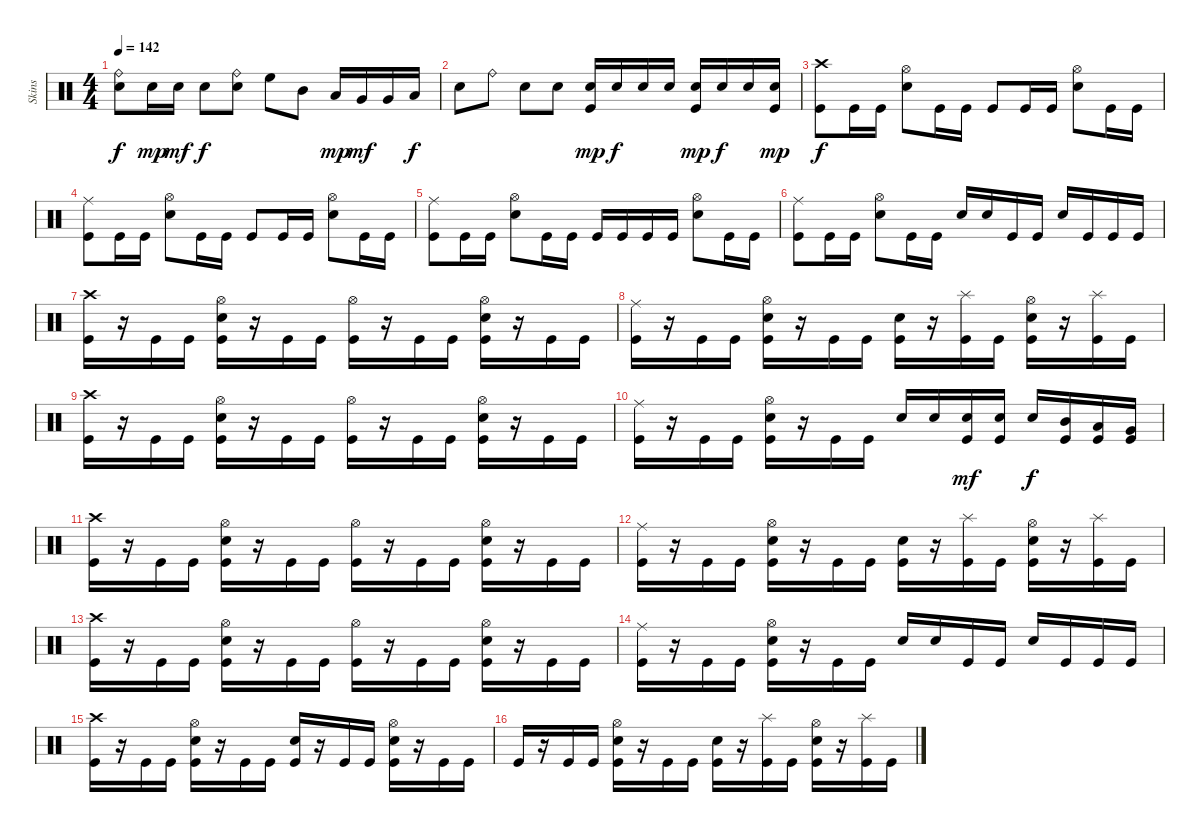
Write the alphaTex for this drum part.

\track ("Skins" "Skins") {instrument percussion}
\staff {score}
\articulation defaults
\ts (4 4)
\tempo 142
\clef neutral
\ks c
("Electric Snare (hit)" "Ride (bell)").8{dy f} "Snare (hit) 2".16{dy mp} "Snare (hit) 2".16{dy mf} "Snare (hit) 2".8{dy f} ("Electric Snare (hit)" "Ride (bell)").8 "High Floor Tom (hit)".8 "Mid Tom (hit)".8 "Low Tom (hit)".16{dy mp} "Very Low Tom (hit)".16{dy mf} "Very Low Tom (hit)".16 "Low Floor Tom (hit)".16{dy f} |
"Electric Snare (hit)".8 "Ride (bell)".8 "Snare (hit) 2".8 "Electric Snare (hit)".8 ("Snare (hit) 2" "Kick (hit)").16{dy mp} "Electric Snare (hit)".16{dy f} "Electric Snare (hit)".16 "Electric Snare (hit)".16 ("Snare (hit) 2" "Kick (hit)").16{dy mp} "Electric Snare (hit)".16{dy f} "Electric Snare (hit)".16 ("Snare (hit) 2" "Kick (hit)").16{dy mp} |
("Crash high (hit)" "Kick (hit)").8{dy f} "Kick (hit)".16 "Kick (hit)".16 ("Electric Snare (hit)" "Hi-Hat (open)").8 "Kick (hit)".16 "Kick (hit)".16 "Kick (hit)".8 "Kick (hit)".16 "Kick (hit)".16 ("Electric Snare (hit)" "Hi-Hat (open)").8 "Kick (hit)".16 "Kick (hit)".16 |
("Ride (middle)" "Kick (hit)").8 "Kick (hit)".16 "Kick (hit)".16 ("Electric Snare (hit)" "Hi-Hat (open)").8 "Kick (hit)".16 "Kick (hit)".16 "Kick (hit)".8 "Kick (hit)".16 "Kick (hit)".16 ("Electric Snare (hit)" "Hi-Hat (open)").8 "Kick (hit)".16 "Kick (hit)".16 |
("Ride (middle)" "Kick (hit)").8 "Kick (hit)".16 "Kick (hit)".16 ("Electric Snare (hit)" "Hi-Hat (open)").8 "Kick (hit)".16 "Kick (hit)".16 "Kick (hit)".16 "Kick (hit)".16 "Kick (hit)".16 "Kick (hit)".16 ("Electric Snare (hit)" "Hi-Hat (open)").8 "Kick (hit)".16 "Kick (hit)".16 |
("Ride (middle)" "Kick (hit)").8 "Kick (hit)".16 "Kick (hit)".16 ("Electric Snare (hit)" "Hi-Hat (open)").8 "Kick (hit)".16 "Kick (hit)".16 "Snare (hit) 2".16 "Snare (hit) 2".16 "Kick (hit)".16 "Kick (hit)".16 "Snare (hit) 2".16 "Kick (hit)".16 "Kick (hit)".16 "Kick (hit)".16 |
("Crash high (hit)" "Kick (hit)").16 r.16 "Kick (hit)".16 "Kick (hit)".16 ("Electric Snare (hit)" "Hi-Hat (open)" "Kick (hit)").16 r.16 "Kick (hit)".16 "Kick (hit)".16 ("Hi-Hat (open)" "Kick (hit)").16 r.16 "Kick (hit)".16 "Kick (hit)".16 ("Electric Snare (hit)" "Hi-Hat (open)" "Kick (hit)").16 r.16 "Kick (hit)".16 "Kick (hit)".16 |
("Ride (middle)" "Kick (hit)").16 r.16 "Kick (hit)".16 "Kick (hit)".16 ("Electric Snare (hit)" "Hi-Hat (open)" "Kick (hit)").16 r.16 "Kick (hit)".16 "Kick (hit)".16 ("Snare (hit) 2" "Kick (hit)").16 r.16 ("Splash (hit)" "Kick (hit)").16 "Kick (hit)".16 ("Electric Snare (hit)" "Hi-Hat (open)" "Kick (hit)").16 r.16 ("Splash (hit)" "Kick (hit)").16 "Kick (hit)".16 |
("Crash high (hit)" "Kick (hit)").16 r.16 "Kick (hit)".16 "Kick (hit)".16 ("Electric Snare (hit)" "Hi-Hat (open)" "Kick (hit)").16 r.16 "Kick (hit)".16 "Kick (hit)".16 ("Hi-Hat (open)" "Kick (hit)").16 r.16 "Kick (hit)".16 "Kick (hit)".16 ("Electric Snare (hit)" "Hi-Hat (open)" "Kick (hit)").16 r.16 "Kick (hit)".16 "Kick (hit)".16 |
("Ride (middle)" "Kick (hit)").16 r.16 "Kick (hit)".16 "Kick (hit)".16 ("Electric Snare (hit)" "Hi-Hat (open)" "Kick (hit)").16 r.16 "Kick (hit)".16 "Kick (hit)".16 "Snare (hit) 2".16 "Snare (hit) 2".16 ("Electric Snare (hit)" "Kick (hit)").16{dy mf} ("Electric Snare (hit)" "Kick (hit)").16 "Snare (hit) 2".16{dy f} ("Mid Tom (hit)" "Kick (hit)").16 ("Low Tom (hit)" "Kick (hit)").16 ("Very Low Tom (hit)" "Kick (hit)").16 |
("Crash high (hit)" "Kick (hit)").16 r.16 "Kick (hit)".16 "Kick (hit)".16 ("Electric Snare (hit)" "Hi-Hat (open)" "Kick (hit)").16 r.16 "Kick (hit)".16 "Kick (hit)".16 ("Hi-Hat (open)" "Kick (hit)").16 r.16 "Kick (hit)".16 "Kick (hit)".16 ("Electric Snare (hit)" "Hi-Hat (open)" "Kick (hit)").16 r.16 "Kick (hit)".16 "Kick (hit)".16 |
("Ride (middle)" "Kick (hit)").16 r.16 "Kick (hit)".16 "Kick (hit)".16 ("Electric Snare (hit)" "Hi-Hat (open)" "Kick (hit)").16 r.16 "Kick (hit)".16 "Kick (hit)".16 ("Snare (hit) 2" "Kick (hit)").16 r.16 ("Splash (hit)" "Kick (hit)").16 "Kick (hit)".16 ("Electric Snare (hit)" "Hi-Hat (open)" "Kick (hit)").16 r.16 ("Splash (hit)" "Kick (hit)").16 "Kick (hit)".16 |
("Crash high (hit)" "Kick (hit)").16 r.16 "Kick (hit)".16 "Kick (hit)".16 ("Electric Snare (hit)" "Hi-Hat (open)" "Kick (hit)").16 r.16 "Kick (hit)".16 "Kick (hit)".16 ("Hi-Hat (open)" "Kick (hit)").16 r.16 "Kick (hit)".16 "Kick (hit)".16 ("Electric Snare (hit)" "Hi-Hat (open)" "Kick (hit)").16 r.16 "Kick (hit)".16 "Kick (hit)".16 |
("Ride (middle)" "Kick (hit)").16 r.16 "Kick (hit)".16 "Kick (hit)".16 ("Electric Snare (hit)" "Hi-Hat (open)" "Kick (hit)").16 r.16 "Kick (hit)".16 "Kick (hit)".16 "Snare (hit) 2".16 "Snare (hit) 2".16 "Kick (hit)".16 "Kick (hit)".16 "Snare (hit) 2".16 "Kick (hit)".16 "Kick (hit)".16 "Kick (hit)".16 |
("Crash high (hit)" "Kick (hit)").16 r.16 "Kick (hit)".16 "Kick (hit)".16 ("Electric Snare (hit)" "Hi-Hat (open)" "Kick (hit)").16 r.16 "Kick (hit)".16 "Kick (hit)".16 ("Snare (hit) 2" "Kick (hit)").16 r.16 "Kick (hit)".16 "Kick (hit)".16 ("Electric Snare (hit)" "Hi-Hat (open)" "Kick (hit)").16 r.16 "Kick (hit)".16 "Kick (hit)".16 |
"Kick (hit)".16 r.16 "Kick (hit)".16 "Kick (hit)".16 ("Electric Snare (hit)" "Hi-Hat (open)" "Kick (hit)").16 r.16 "Kick (hit)".16 "Kick (hit)".16 ("Snare (hit) 2" "Kick (hit)").16 r.16 ("Splash (hit)" "Kick (hit)").16 "Kick (hit)".16 ("Electric Snare (hit)" "Hi-Hat (open)" "Kick (hit)").16 r.16 ("Splash (hit)" "Kick (hit)").16 "Kick (hit)".16
